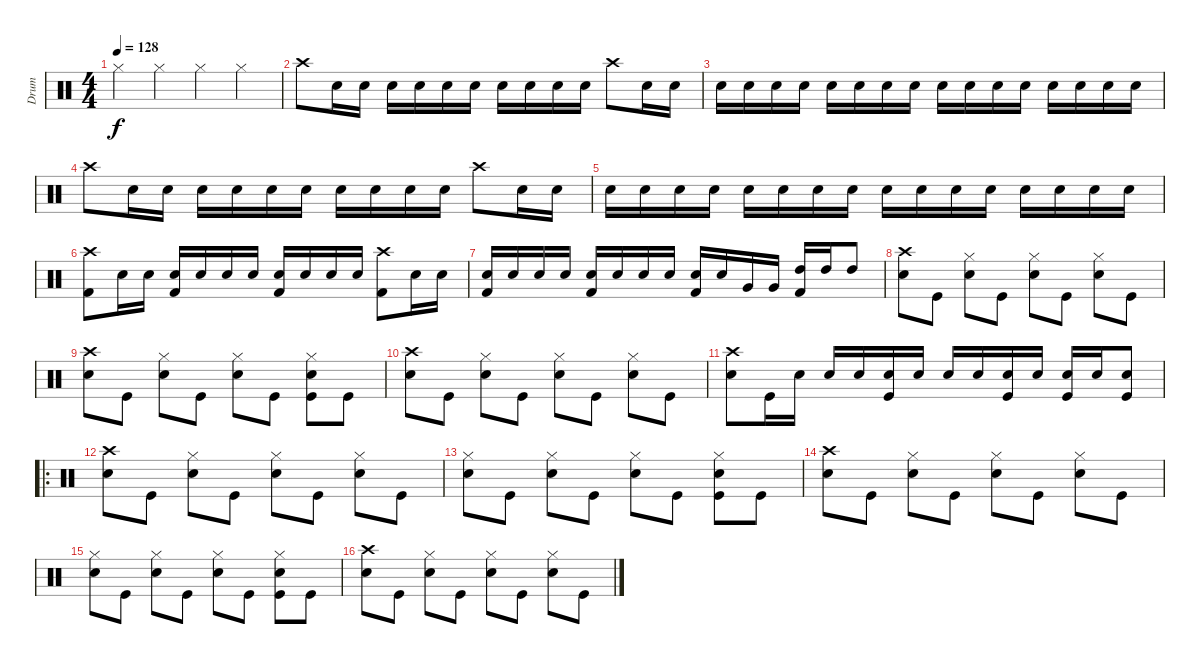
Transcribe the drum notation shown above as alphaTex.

\track ("Drum" "Drum") {instrument percussion}
\staff {score}
\articulation defaults
\ts (4 4)
\tempo 128
\clef neutral
\ks c "Hi-Hat (closed)".4{dy f} "Hi-Hat (closed)".4 "Hi-Hat (closed)".4 "Hi-Hat (closed)".4
|
"Crash high (hit)".8 "Snare (hit) 2".16 "Snare (hit) 2".16 "Snare (hit) 2".16 "Snare (hit) 2".16 "Snare (hit) 2".16 "Snare (hit) 2".16 "Snare (hit) 2".16 "Snare (hit) 2".16 "Snare (hit) 2".16 "Snare (hit) 2".16 "Crash high (hit)".8 "Snare (hit) 2".16 "Snare (hit) 2".16 |
"Snare (hit) 2".16 "Snare (hit) 2".16 "Snare (hit) 2".16 "Snare (hit) 2".16 "Snare (hit) 2".16 "Snare (hit) 2".16 "Snare (hit) 2".16 "Snare (hit) 2".16 "Snare (hit) 2".16 "Snare (hit) 2".16 "Snare (hit) 2".16 "Snare (hit) 2".16 "Snare (hit) 2".16 "Snare (hit) 2".16 "Snare (hit) 2".16 "Snare (hit) 2".16 |
"Crash high (hit)".8 "Snare (hit) 2".16 "Snare (hit) 2".16 "Snare (hit) 2".16 "Snare (hit) 2".16 "Snare (hit) 2".16 "Snare (hit) 2".16 "Snare (hit) 2".16 "Snare (hit) 2".16 "Snare (hit) 2".16 "Snare (hit) 2".16 "Crash high (hit)".8 "Snare (hit) 2".16 "Snare (hit) 2".16 |
"Snare (hit) 2".16 "Snare (hit) 2".16 "Snare (hit) 2".16 "Snare (hit) 2".16 "Snare (hit) 2".16 "Snare (hit) 2".16 "Snare (hit) 2".16 "Snare (hit) 2".16 "Snare (hit) 2".16 "Snare (hit) 2".16 "Snare (hit) 2".16 "Snare (hit) 2".16 "Snare (hit) 2".16 "Snare (hit) 2".16 "Snare (hit) 2".16 "Snare (hit) 2".16 |
("Crash high (hit)" "Kick (hit) 2").8 "Snare (hit) 2".16 "Snare (hit) 2".16 ("Snare (hit) 2" "Kick (hit) 2").16 "Snare (hit) 2".16 "Snare (hit) 2".16 "Snare (hit) 2".16 ("Snare (hit) 2" "Kick (hit) 2").16 "Snare (hit) 2".16 "Snare (hit) 2".16 "Snare (hit) 2".16 ("Crash high (hit)" "Kick (hit) 2").8 "Snare (hit) 2".16 "Snare (hit) 2".16 |
("Snare (hit) 2" "Kick (hit) 2").16 "Snare (hit) 2".16 "Snare (hit) 2".16 "Snare (hit) 2".16 ("Snare (hit) 2" "Kick (hit) 2").16 "Snare (hit) 2".16 "Snare (hit) 2".16 "Snare (hit) 2".16 ("Snare (hit) 2" "Kick (hit) 2").16 "Snare (hit) 2".16 "Very Low Tom (hit)".16 "Very Low Tom (hit)".16 ("High Tom (hit)" "Kick (hit) 2").16 "High Tom (hit)".16 "High Tom (hit)".8 |
("Crash high (hit)" "Snare (hit) 2").8 "Kick (hit)".8 ("Hi-Hat (closed)" "Snare (hit) 2").8 "Kick (hit)".8 ("Hi-Hat (closed)" "Snare (hit) 2").8 "Kick (hit)".8 ("Hi-Hat (closed)" "Snare (hit) 2").8 "Kick (hit)".8 |
("Crash high (hit)" "Snare (hit) 2").8 "Kick (hit)".8 ("Hi-Hat (closed)" "Snare (hit) 2").8 "Kick (hit)".8 ("Hi-Hat (closed)" "Snare (hit) 2").8 "Kick (hit)".8 ("Hi-Hat (closed)" "Snare (hit) 2" "Kick (hit)").8 "Kick (hit)".8 |
("Crash high (hit)" "Snare (hit) 2").8 "Kick (hit)".8 ("Hi-Hat (closed)" "Snare (hit) 2").8 "Kick (hit)".8 ("Hi-Hat (closed)" "Snare (hit) 2").8 "Kick (hit)".8 ("Hi-Hat (closed)" "Snare (hit) 2").8 "Kick (hit)".8 |
("Crash high (hit)" "Snare (hit) 2").8 "Kick (hit)".16 "Snare (hit) 2".16 "Snare (hit) 2".16 "Snare (hit) 2".16 ("Snare (hit) 2" "Kick (hit)").16 "Snare (hit) 2".16 "Snare (hit) 2".16 "Snare (hit) 2".16 ("Snare (hit) 2" "Kick (hit)").16 "Snare (hit) 2".16 ("Snare (hit) 2" "Kick (hit)").16 "Snare (hit) 2".16 ("Snare (hit) 2" "Kick (hit)").8 |
\ro
("Crash high (hit)" "Snare (hit) 2").8 "Kick (hit)".8 ("Hi-Hat (closed)" "Snare (hit) 2").8 "Kick (hit)".8 ("Hi-Hat (closed)" "Snare (hit) 2").8 "Kick (hit)".8 ("Hi-Hat (closed)" "Snare (hit) 2").8 "Kick (hit)".8 |
("Hi-Hat (closed)" "Snare (hit) 2").8 "Kick (hit)".8 ("Hi-Hat (closed)" "Snare (hit) 2").8 "Kick (hit)".8 ("Hi-Hat (closed)" "Snare (hit) 2").8 "Kick (hit)".8 ("Hi-Hat (closed)" "Snare (hit) 2" "Kick (hit)").8 "Kick (hit)".8 |
("Crash high (hit)" "Snare (hit) 2").8 "Kick (hit)".8 ("Hi-Hat (closed)" "Snare (hit) 2").8 "Kick (hit)".8 ("Hi-Hat (closed)" "Snare (hit) 2").8 "Kick (hit)".8 ("Hi-Hat (closed)" "Snare (hit) 2").8 "Kick (hit)".8 |
("Hi-Hat (closed)" "Snare (hit) 2").8 "Kick (hit)".8 ("Hi-Hat (closed)" "Snare (hit) 2").8 "Kick (hit)".8 ("Hi-Hat (closed)" "Snare (hit) 2").8 "Kick (hit)".8 ("Hi-Hat (closed)" "Snare (hit) 2" "Kick (hit)").8 "Kick (hit)".8 |
("Crash high (hit)" "Snare (hit) 2").8 "Kick (hit)".8 ("Hi-Hat (closed)" "Snare (hit) 2").8 "Kick (hit)".8 ("Hi-Hat (closed)" "Snare (hit) 2").8 "Kick (hit)".8 ("Hi-Hat (closed)" "Snare (hit) 2").8 "Kick (hit)".8
